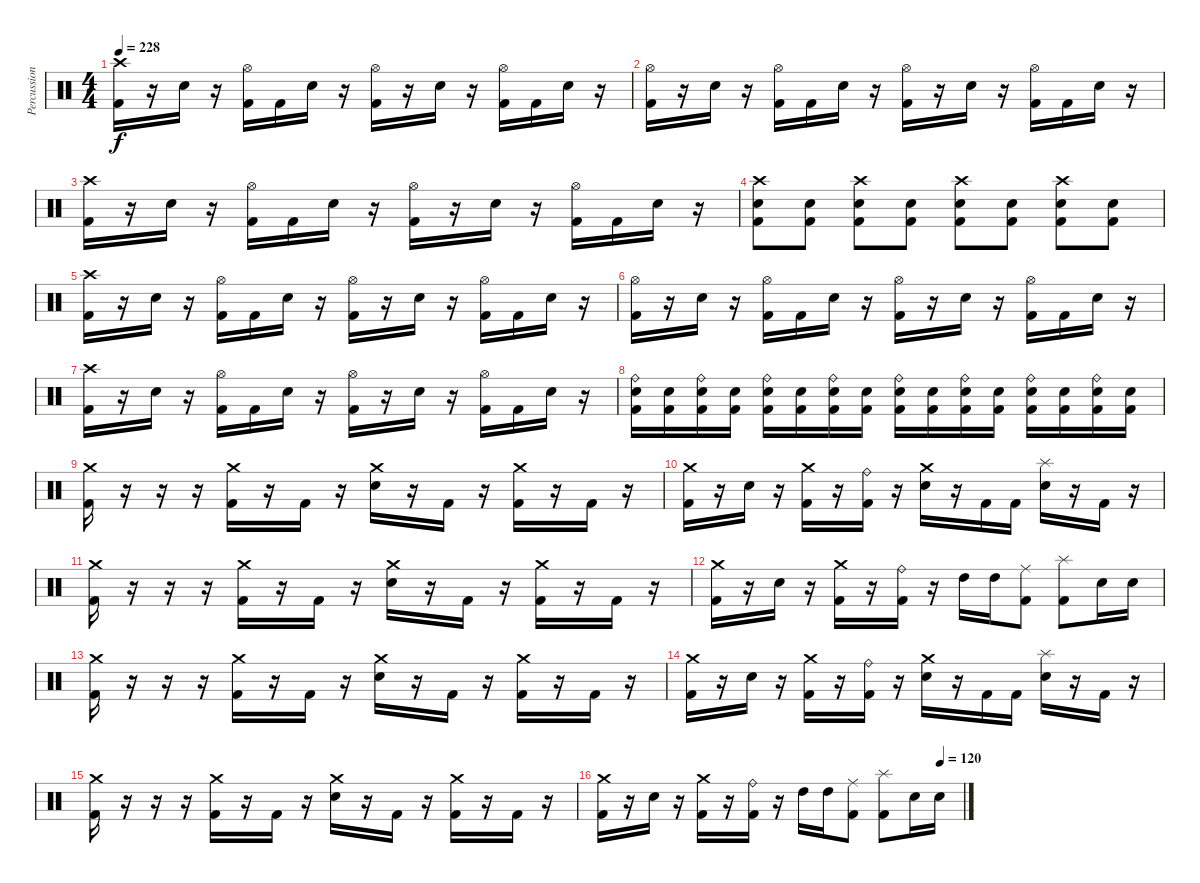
\track ("Percussion" "Percussion") {instrument percussion}
\staff {score}
\articulation defaults
\ts (4 4)
\tempo 228
\clef neutral
\ks c
("Crash high (hit)" "Kick (hit) 2").16{dy f} r.16 "Electric Snare (hit)".16 r.16 ("Hi-Hat (open)" "Kick (hit) 2").16 "Kick (hit) 2".16 "Electric Snare (hit)".16 r.16 ("Hi-Hat (open)" "Kick (hit) 2").16 r.16 "Electric Snare (hit)".16 r.16 ("Hi-Hat (open)" "Kick (hit) 2").16 "Kick (hit) 2".16 "Electric Snare (hit)".16 r.16 |
("Hi-Hat (open)" "Kick (hit) 2").16 r.16 "Electric Snare (hit)".16 r.16 ("Hi-Hat (open)" "Kick (hit) 2").16 "Kick (hit) 2".16 "Electric Snare (hit)".16 r.16 ("Hi-Hat (open)" "Kick (hit) 2").16 r.16 "Electric Snare (hit)".16 r.16 ("Hi-Hat (open)" "Kick (hit) 2").16 "Kick (hit) 2".16 "Electric Snare (hit)".16 r.16 |
("Crash high (hit)" "Kick (hit) 2").16 r.16 "Electric Snare (hit)".16 r.16 ("Hi-Hat (open)" "Kick (hit) 2").16 "Kick (hit) 2".16 "Electric Snare (hit)".16 r.16 ("Hi-Hat (open)" "Kick (hit) 2").16 r.16 "Electric Snare (hit)".16 r.16 ("Hi-Hat (open)" "Kick (hit) 2").16 "Kick (hit) 2".16 "Electric Snare (hit)".16 r.16 |
("Crash high (hit)" "Electric Snare (hit)" "Kick (hit) 2").8 ("Electric Snare (hit)" "Kick (hit) 2").8 ("Crash high (hit)" "Electric Snare (hit)" "Kick (hit) 2").8 ("Electric Snare (hit)" "Kick (hit) 2").8 ("Crash high (hit)" "Electric Snare (hit)" "Kick (hit) 2").8 ("Electric Snare (hit)" "Kick (hit) 2").8 ("Crash high (hit)" "Electric Snare (hit)" "Kick (hit) 2").8 ("Electric Snare (hit)" "Kick (hit) 2").8 |
("Crash high (hit)" "Kick (hit) 2").16 r.16 "Electric Snare (hit)".16 r.16 ("Hi-Hat (open)" "Kick (hit) 2").16 "Kick (hit) 2".16 "Electric Snare (hit)".16 r.16 ("Hi-Hat (open)" "Kick (hit) 2").16 r.16 "Electric Snare (hit)".16 r.16 ("Hi-Hat (open)" "Kick (hit) 2").16 "Kick (hit) 2".16 "Electric Snare (hit)".16 r.16 |
("Hi-Hat (open)" "Kick (hit) 2").16 r.16 "Electric Snare (hit)".16 r.16 ("Hi-Hat (open)" "Kick (hit) 2").16 "Kick (hit) 2".16 "Electric Snare (hit)".16 r.16 ("Hi-Hat (open)" "Kick (hit) 2").16 r.16 "Electric Snare (hit)".16 r.16 ("Hi-Hat (open)" "Kick (hit) 2").16 "Kick (hit) 2".16 "Electric Snare (hit)".16 r.16 |
("Crash high (hit)" "Kick (hit) 2").16 r.16 "Electric Snare (hit)".16 r.16 ("Hi-Hat (open)" "Kick (hit) 2").16 "Kick (hit) 2".16 "Electric Snare (hit)".16 r.16 ("Hi-Hat (open)" "Kick (hit) 2").16 r.16 "Electric Snare (hit)".16 r.16 ("Hi-Hat (open)" "Kick (hit) 2").16 "Kick (hit) 2".16 "Electric Snare (hit)".16 r.16 |
("Ride (bell)" "Electric Snare (hit)" "Kick (hit) 2").16 ("Electric Snare (hit)" "Kick (hit) 2").16 ("Ride (bell)" "Electric Snare (hit)" "Kick (hit) 2").16 ("Electric Snare (hit)" "Kick (hit) 2").16 ("Ride (bell)" "Electric Snare (hit)" "Kick (hit) 2").16 ("Electric Snare (hit)" "Kick (hit) 2").16 ("Ride (bell)" "Electric Snare (hit)" "Kick (hit) 2").16 ("Electric Snare (hit)" "Kick (hit) 2").16 ("Ride (bell)" "Electric Snare (hit)" "Kick (hit) 2").16 ("Electric Snare (hit)" "Kick (hit) 2").16 ("Ride (bell)" "Electric Snare (hit)" "Kick (hit) 2").16 ("Electric Snare (hit)" "Kick (hit) 2").16 ("Ride (bell)" "Electric Snare (hit)" "Kick (hit) 2").16 ("Electric Snare (hit)" "Kick (hit) 2").16 ("Ride (bell)" "Electric Snare (hit)" "Kick (hit) 2").16 ("Electric Snare (hit)" "Kick (hit) 2").16 |
("Crash medium (hit)" "Kick (hit) 2").16 r.16 r.16 r.16 ("Crash medium (hit)" "Kick (hit) 2").16 r.16 "Kick (hit) 2".16 r.16 ("Crash medium (hit)" "Electric Snare (hit)").16 r.16 "Kick (hit) 2".16 r.16 ("Crash medium (hit)" "Kick (hit) 2").16 r.16 "Kick (hit) 2".16 r.16 |
("Crash medium (hit)" "Kick (hit) 2").16 r.16 "Electric Snare (hit)".16 r.16 ("Crash medium (hit)" "Kick (hit) 2").16 r.16 ("Ride (bell)" "Kick (hit) 2").16 r.16 ("Crash medium (hit)" "Electric Snare (hit)").16 r.16 "Kick (hit) 2".16 "Kick (hit) 2".16 ("Splash (hit)" "Electric Snare (hit)").16 r.16 "Kick (hit) 2".16 r.16 |
("Crash medium (hit)" "Kick (hit) 2").16 r.16 r.16 r.16 ("Crash medium (hit)" "Kick (hit) 2").16 r.16 "Kick (hit) 2".16 r.16 ("Crash medium (hit)" "Electric Snare (hit)").16 r.16 "Kick (hit) 2".16 r.16 ("Crash medium (hit)" "Kick (hit) 2").16 r.16 "Kick (hit) 2".16 r.16 |
("Crash medium (hit)" "Kick (hit) 2").16 r.16 "Electric Snare (hit)".16 r.16 ("Crash medium (hit)" "Kick (hit) 2").16 r.16 ("Ride (bell)" "Kick (hit) 2").16 r.16 "High Tom (hit)".16 "High Tom (hit)".16 ("Ride (middle)" "Kick (hit) 2").8 ("Splash (hit)" "Kick (hit) 2").8 "Electric Snare (hit)".16 "Electric Snare (hit)".16 |
("Crash medium (hit)" "Kick (hit) 2").16 r.16 r.16 r.16 ("Crash medium (hit)" "Kick (hit) 2").16 r.16 "Kick (hit) 2".16 r.16 ("Crash medium (hit)" "Electric Snare (hit)").16 r.16 "Kick (hit) 2".16 r.16 ("Crash medium (hit)" "Kick (hit) 2").16 r.16 "Kick (hit) 2".16 r.16 |
("Crash medium (hit)" "Kick (hit) 2").16 r.16 "Electric Snare (hit)".16 r.16 ("Crash medium (hit)" "Kick (hit) 2").16 r.16 ("Ride (bell)" "Kick (hit) 2").16 r.16 ("Crash medium (hit)" "Electric Snare (hit)").16 r.16 "Kick (hit) 2".16 "Kick (hit) 2".16 ("Splash (hit)" "Electric Snare (hit)").16 r.16 "Kick (hit) 2".16 r.16 |
("Crash medium (hit)" "Kick (hit) 2").16 r.16 r.16 r.16 ("Crash medium (hit)" "Kick (hit) 2").16 r.16 "Kick (hit) 2".16 r.16 ("Crash medium (hit)" "Electric Snare (hit)").16 r.16 "Kick (hit) 2".16 r.16 ("Crash medium (hit)" "Kick (hit) 2").16 r.16 "Kick (hit) 2".16 r.16 |
\tempo (120 0.9375)
("Crash medium (hit)" "Kick (hit) 2").16 r.16 "Electric Snare (hit)".16 r.16 ("Crash medium (hit)" "Kick (hit) 2").16 r.16 ("Ride (bell)" "Kick (hit) 2").16 r.16 "High Tom (hit)".16 "High Tom (hit)".16 ("Ride (middle)" "Kick (hit) 2").8 ("Splash (hit)" "Kick (hit) 2").8 "Electric Snare (hit)".16 "Electric Snare (hit)".16
